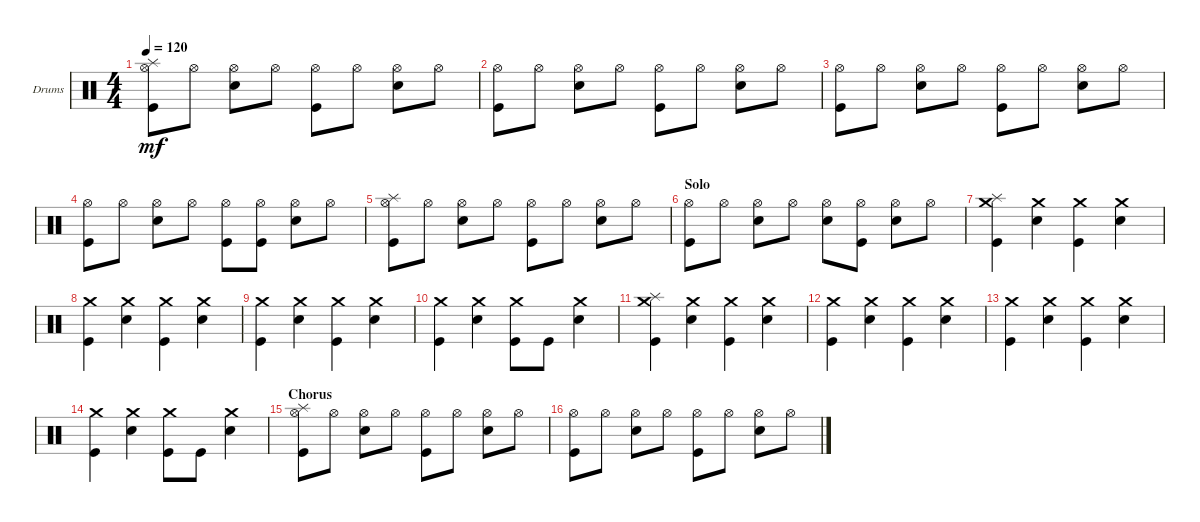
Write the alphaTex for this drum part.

\defaultSystemsLayout 4
\bracketExtendMode groupsimilarinstruments
\firstSystemTrackNameOrientation horizontal
\otherSystemsTrackNameOrientation horizontal
\track ("Drumkit" "Drums") {instrument percussion}
\staff {score}
\articulation defaults
\ts (4 4)
\tempo 120
\clef neutral
\ks c
("Kick (hit)" "Hi-Hat (open)" "Splash (hit)").8{dy mf} "Hi-Hat (open)".8 ("Hi-Hat (open)" "Snare (hit) 2").8 "Hi-Hat (open)".8 ("Hi-Hat (open)" "Kick (hit)").8 "Hi-Hat (open)".8 ("Hi-Hat (open)" "Snare (hit) 2").8 "Hi-Hat (open)".8 |
("Kick (hit)" "Hi-Hat (open)").8 "Hi-Hat (open)".8 ("Hi-Hat (open)" "Snare (hit) 2").8 "Hi-Hat (open)".8 ("Hi-Hat (open)" "Kick (hit)").8 "Hi-Hat (open)".8 ("Hi-Hat (open)" "Snare (hit) 2").8 "Hi-Hat (open)".8 |
("Kick (hit)" "Hi-Hat (open)").8 "Hi-Hat (open)".8 ("Hi-Hat (open)" "Snare (hit) 2").8 "Hi-Hat (open)".8 ("Hi-Hat (open)" "Kick (hit)").8 "Hi-Hat (open)".8 ("Hi-Hat (open)" "Snare (hit) 2").8 "Hi-Hat (open)".8 |
("Kick (hit)" "Hi-Hat (open)").8 "Hi-Hat (open)".8 ("Hi-Hat (open)" "Snare (hit) 2").8 "Hi-Hat (open)".8 ("Hi-Hat (open)" "Kick (hit)").8 ("Hi-Hat (open)" "Kick (hit)").8 ("Hi-Hat (open)" "Snare (hit) 2").8 "Hi-Hat (open)".8 |
("Kick (hit)" "Hi-Hat (open)" "Splash (hit)").8 "Hi-Hat (open)".8 ("Hi-Hat (open)" "Snare (hit) 2").8 "Hi-Hat (open)".8 ("Hi-Hat (open)" "Kick (hit)").8 "Hi-Hat (open)".8 ("Hi-Hat (open)" "Snare (hit) 2").8 "Hi-Hat (open)".8 |
\section ("" "Solo")
("Kick (hit)" "Hi-Hat (open)").8 "Hi-Hat (open)".8 ("Hi-Hat (open)" "Snare (hit) 2").8 "Hi-Hat (open)".8 ("Hi-Hat (open)" "Snare (hit) 2").8 ("Hi-Hat (open)" "Kick (hit)").8 ("Hi-Hat (open)" "Snare (hit) 2").8 "Hi-Hat (open)".8 |
("Kick (hit)" "Splash (hit)" "Crash medium (hit)").4 ("Snare (hit) 2" "Crash medium (hit)").4 ("Kick (hit)" "Crash medium (hit)").4 ("Snare (hit) 2" "Crash medium (hit)").4 |
("Kick (hit)" "Crash medium (hit)").4 ("Snare (hit) 2" "Crash medium (hit)").4 ("Kick (hit)" "Crash medium (hit)").4 ("Snare (hit) 2" "Crash medium (hit)").4 |
("Kick (hit)" "Crash medium (hit)").4 ("Snare (hit) 2" "Crash medium (hit)").4 ("Kick (hit)" "Crash medium (hit)").4 ("Snare (hit) 2" "Crash medium (hit)").4 |
("Kick (hit)" "Crash medium (hit)").4 ("Snare (hit) 2" "Crash medium (hit)").4 ("Kick (hit)" "Crash medium (hit)").8 "Kick (hit)".8 ("Crash medium (hit)" "Snare (hit) 2").4 |
("Kick (hit)" "Splash (hit)" "Crash medium (hit)").4 ("Snare (hit) 2" "Crash medium (hit)").4 ("Kick (hit)" "Crash medium (hit)").4 ("Snare (hit) 2" "Crash medium (hit)").4 |
("Kick (hit)" "Crash medium (hit)").4 ("Snare (hit) 2" "Crash medium (hit)").4 ("Kick (hit)" "Crash medium (hit)").4 ("Snare (hit) 2" "Crash medium (hit)").4 |
("Kick (hit)" "Crash medium (hit)").4 ("Snare (hit) 2" "Crash medium (hit)").4 ("Kick (hit)" "Crash medium (hit)").4 ("Snare (hit) 2" "Crash medium (hit)").4 |
("Kick (hit)" "Crash medium (hit)").4 ("Snare (hit) 2" "Crash medium (hit)").4 ("Kick (hit)" "Crash medium (hit)").8 "Kick (hit)".8 ("Crash medium (hit)" "Snare (hit) 2").4 |
\section ("" "Chorus")
("Kick (hit)" "Hi-Hat (open)" "Splash (hit)").8 "Hi-Hat (open)".8 ("Hi-Hat (open)" "Snare (hit) 2").8 "Hi-Hat (open)".8 ("Hi-Hat (open)" "Kick (hit)").8 "Hi-Hat (open)".8 ("Hi-Hat (open)" "Snare (hit) 2").8 "Hi-Hat (open)".8 |
("Kick (hit)" "Hi-Hat (open)").8 "Hi-Hat (open)".8 ("Hi-Hat (open)" "Snare (hit) 2").8 "Hi-Hat (open)".8 ("Hi-Hat (open)" "Kick (hit)").8 "Hi-Hat (open)".8 ("Hi-Hat (open)" "Snare (hit) 2").8 "Hi-Hat (open)".8
